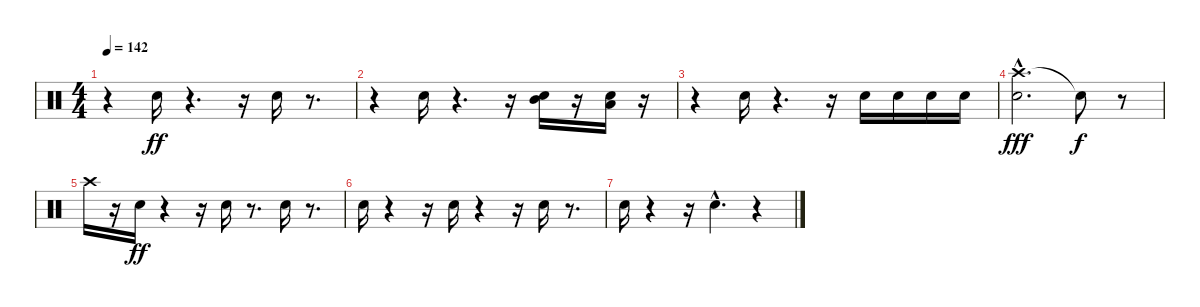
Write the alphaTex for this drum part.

\track "" {instrument percussion}
\staff {score}
\articulation defaults
\ts (4 4)
\tempo 142
\clef neutral
\ks c
r.4{dy ff} "Snare (hit) 2".16 r.4{d} r.16 "Snare (hit) 2".16 r.8{d} |
r.4 "Snare (hit) 2".16 r.4{d} r.16 ("Mid Tom (hit)" "Snare (hit) 2").16 r.16 ("Snare (hit) 2" "Low Tom (hit)").16 r.16 |
r.4 "Snare (hit) 2".16 r.4{d} r.16 "Snare (hit) 2".16 "Snare (hit) 2".16 "Snare (hit) 2".16 "Snare (hit) 2".16 |
("Crash high (hit)" "Snare (hit) 2"{hac}).2{d dy fff} "Snare (hit)"{t}.8{dy f} r.8 |
"Crash high (hit)".16 r.16 "Snare (hit) 2".16{dy ff} r.4 r.16 "Snare (hit) 2".16 r.8{d} "Snare (hit) 2".16 r.8{d} |
"Snare (hit) 2".16 r.4 r.16 "Snare (hit) 2".16 r.4 r.16 "Snare (hit) 2".16 r.8{d} |
"Snare (hit) 2".16 r.4 r.16 "Snare (hit) 2"{hac}.4{d} r.4
